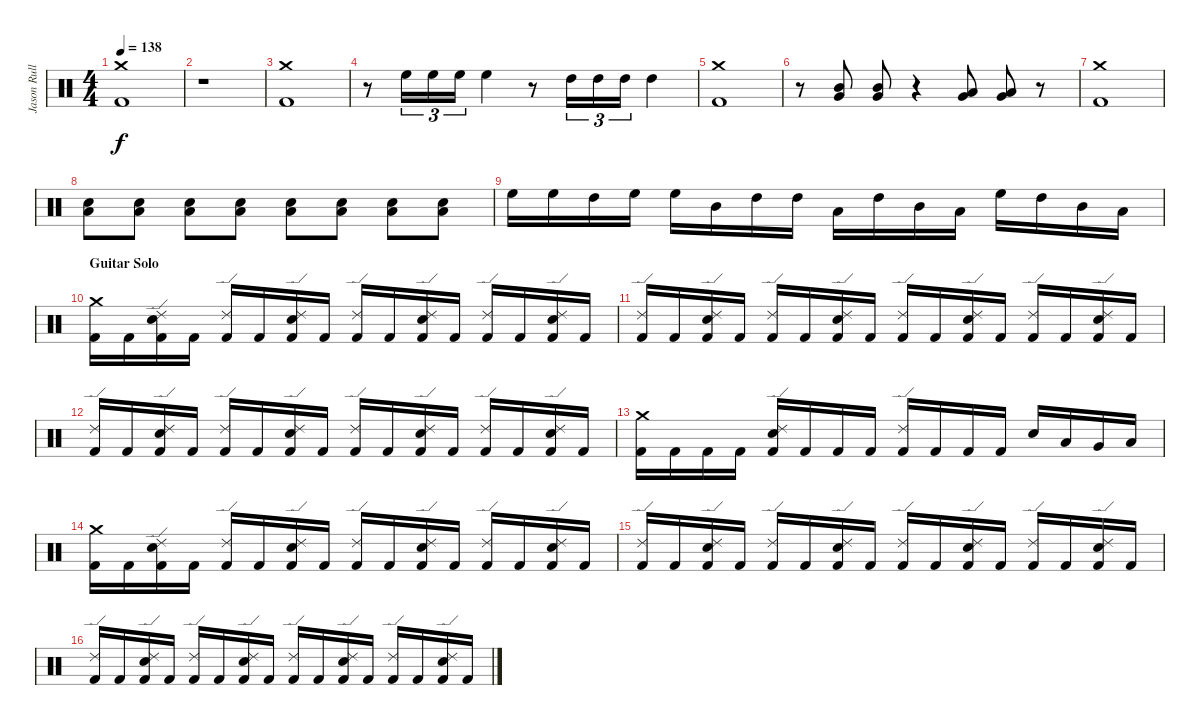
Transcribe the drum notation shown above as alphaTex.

\track ("Jason Rullo" "Jason Rull") {instrument percussion}
\staff {score}
\articulation defaults
\ts (4 4)
\tempo 138
\clef neutral
\ks c
("Crash medium (hit)" "Kick (hit) 2").1{dy f} |
r.1 |
("Crash medium (hit)" "Kick (hit) 2").1 |
r.8 "High Floor Tom (hit)".16{tu (3 2)} "High Floor Tom (hit)".16{tu (3 2)} "High Floor Tom (hit)".16{tu (3 2)} "High Floor Tom (hit)".4 r.8 "High Tom (hit)".16{tu (3 2)} "High Tom (hit)".16{tu (3 2)} "High Tom (hit)".16{tu (3 2)} "High Tom (hit)".4 |
("Crash medium (hit)" "Kick (hit) 2").1 |
r.8 ("Very Low Tom (hit)" "Mid Tom (hit)").8 ("Very Low Tom (hit)" "Mid Tom (hit)").8 r.4 ("Low Floor Tom (hit)" "Very Low Tom (hit)").8 ("Low Floor Tom (hit)" "Very Low Tom (hit)").8 r.8 |
("Crash medium (hit)" "Kick (hit) 2").1 |
("Low Tom (hit)" "Electric Snare (hit)").8{volume 4} ("Low Tom (hit)" "Electric Snare (hit)").8{volume 5} ("Low Tom (hit)" "Electric Snare (hit)").8{volume 7} ("Low Tom (hit)" "Electric Snare (hit)").8{volume 8} ("Low Tom (hit)" "Electric Snare (hit)").8{volume 10} ("Low Tom (hit)" "Electric Snare (hit)").8{volume 11} ("Low Tom (hit)" "Electric Snare (hit)").8{volume 13} ("Low Tom (hit)" "Electric Snare (hit)").8{volume 14} |
"High Floor Tom (hit)".16{volume 16} "High Floor Tom (hit)".16 "High Tom (hit)".16 "High Floor Tom (hit)".16 "High Floor Tom (hit)".16 "Mid Tom (hit)".16 "High Tom (hit)".16 "High Tom (hit)".16 "Low Tom (hit)".16 "High Tom (hit)".16 "Mid Tom (hit)".16 "Low Tom (hit)".16 "High Floor Tom (hit)".16 "High Tom (hit)".16 "Mid Tom (hit)".16 "Low Tom (hit)".16 |
\section ("" "Guitar Solo")
("Crash medium (hit)" "Kick (hit) 2").16 "Kick (hit) 2".16 ("Ride (edge) 2" "Electric Snare (hit)" "Kick (hit) 2").16 "Kick (hit) 2".16 ("Ride (edge) 2" "Kick (hit) 2").16 "Kick (hit) 2".16 ("Ride (edge) 2" "Electric Snare (hit)" "Kick (hit) 2").16 "Kick (hit) 2".16 ("Ride (edge) 2" "Kick (hit) 2").16 "Kick (hit) 2".16 ("Ride (edge) 2" "Electric Snare (hit)" "Kick (hit) 2").16 "Kick (hit) 2".16 ("Ride (edge) 2" "Kick (hit) 2").16 "Kick (hit) 2".16 ("Ride (edge) 2" "Electric Snare (hit)" "Kick (hit) 2").16 "Kick (hit) 2".16 |
("Ride (edge) 2" "Kick (hit) 2").16 "Kick (hit) 2".16 ("Ride (edge) 2" "Electric Snare (hit)" "Kick (hit) 2").16 "Kick (hit) 2".16 ("Ride (edge) 2" "Kick (hit) 2").16 "Kick (hit) 2".16 ("Ride (edge) 2" "Electric Snare (hit)" "Kick (hit) 2").16 "Kick (hit) 2".16 ("Ride (edge) 2" "Kick (hit) 2").16 "Kick (hit) 2".16 ("Ride (edge) 2" "Electric Snare (hit)" "Kick (hit) 2").16 "Kick (hit) 2".16 ("Ride (edge) 2" "Kick (hit) 2").16 "Kick (hit) 2".16 ("Ride (edge) 2" "Electric Snare (hit)" "Kick (hit) 2").16 "Kick (hit) 2".16 |
("Ride (edge) 2" "Kick (hit) 2").16 "Kick (hit) 2".16 ("Ride (edge) 2" "Electric Snare (hit)" "Kick (hit) 2").16 "Kick (hit) 2".16 ("Ride (edge) 2" "Kick (hit) 2").16 "Kick (hit) 2".16 ("Ride (edge) 2" "Electric Snare (hit)" "Kick (hit) 2").16 "Kick (hit) 2".16 ("Ride (edge) 2" "Kick (hit) 2").16 "Kick (hit) 2".16 ("Ride (edge) 2" "Electric Snare (hit)" "Kick (hit) 2").16 "Kick (hit) 2".16 ("Ride (edge) 2" "Kick (hit) 2").16 "Kick (hit) 2".16 ("Ride (edge) 2" "Electric Snare (hit)" "Kick (hit) 2").16 "Kick (hit) 2".16 |
("Crash medium (hit)" "Kick (hit) 2").16 "Kick (hit) 2".16 "Kick (hit) 2".16 "Kick (hit) 2".16 ("Ride (edge) 2" "Electric Snare (hit)" "Kick (hit) 2").16 "Kick (hit) 2".16 "Kick (hit) 2".16 "Kick (hit) 2".16 ("Ride (edge) 2" "Kick (hit) 2").16 "Kick (hit) 2".16 "Kick (hit) 2".16 "Kick (hit) 2".16 "Electric Snare (hit)".16 "Low Tom (hit)".16 "Very Low Tom (hit)".16 "Low Floor Tom (hit)".16 |
("Crash medium (hit)" "Kick (hit) 2").16 "Kick (hit) 2".16 ("Ride (edge) 2" "Electric Snare (hit)" "Kick (hit) 2").16 "Kick (hit) 2".16 ("Ride (edge) 2" "Kick (hit) 2").16 "Kick (hit) 2".16 ("Ride (edge) 2" "Electric Snare (hit)" "Kick (hit) 2").16 "Kick (hit) 2".16 ("Ride (edge) 2" "Kick (hit) 2").16 "Kick (hit) 2".16 ("Ride (edge) 2" "Electric Snare (hit)" "Kick (hit) 2").16 "Kick (hit) 2".16 ("Ride (edge) 2" "Kick (hit) 2").16 "Kick (hit) 2".16 ("Ride (edge) 2" "Electric Snare (hit)" "Kick (hit) 2").16 "Kick (hit) 2".16 |
("Ride (edge) 2" "Kick (hit) 2").16 "Kick (hit) 2".16 ("Ride (edge) 2" "Electric Snare (hit)" "Kick (hit) 2").16 "Kick (hit) 2".16 ("Ride (edge) 2" "Kick (hit) 2").16 "Kick (hit) 2".16 ("Ride (edge) 2" "Electric Snare (hit)" "Kick (hit) 2").16 "Kick (hit) 2".16 ("Ride (edge) 2" "Kick (hit) 2").16 "Kick (hit) 2".16 ("Ride (edge) 2" "Electric Snare (hit)" "Kick (hit) 2").16 "Kick (hit) 2".16 ("Ride (edge) 2" "Kick (hit) 2").16 "Kick (hit) 2".16 ("Ride (edge) 2" "Electric Snare (hit)" "Kick (hit) 2").16 "Kick (hit) 2".16 |
("Ride (edge) 2" "Kick (hit) 2").16 "Kick (hit) 2".16 ("Ride (edge) 2" "Electric Snare (hit)" "Kick (hit) 2").16 "Kick (hit) 2".16 ("Ride (edge) 2" "Kick (hit) 2").16 "Kick (hit) 2".16 ("Ride (edge) 2" "Electric Snare (hit)" "Kick (hit) 2").16 "Kick (hit) 2".16 ("Ride (edge) 2" "Kick (hit) 2").16 "Kick (hit) 2".16 ("Ride (edge) 2" "Electric Snare (hit)" "Kick (hit) 2").16 "Kick (hit) 2".16 ("Ride (edge) 2" "Kick (hit) 2").16 "Kick (hit) 2".16 ("Ride (edge) 2" "Electric Snare (hit)" "Kick (hit) 2").16 "Kick (hit) 2".16
